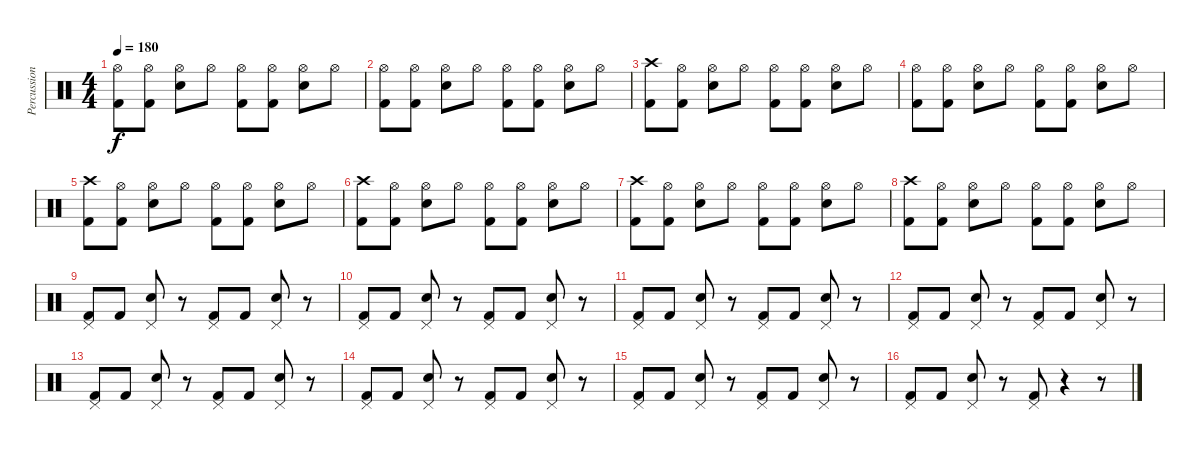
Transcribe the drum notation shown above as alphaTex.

\track ("Percussion" "Percussion") {instrument percussion}
\staff {score}
\articulation defaults
\ts (4 4)
\tempo 180
\clef neutral
\ks c
("Hi-Hat (open)" "Kick (hit) 2").8{dy f} ("Hi-Hat (open)" "Kick (hit) 2").8 ("Hi-Hat (open)" "Electric Snare (hit)").8 "Hi-Hat (open)".8 ("Hi-Hat (open)" "Kick (hit) 2").8 ("Hi-Hat (open)" "Kick (hit) 2").8 ("Hi-Hat (open)" "Electric Snare (hit)").8 "Hi-Hat (open)".8 |
("Hi-Hat (open)" "Kick (hit) 2").8 ("Hi-Hat (open)" "Kick (hit) 2").8 ("Hi-Hat (open)" "Electric Snare (hit)").8 "Hi-Hat (open)".8 ("Hi-Hat (open)" "Kick (hit) 2").8 ("Hi-Hat (open)" "Kick (hit) 2").8 ("Hi-Hat (open)" "Electric Snare (hit)").8 "Hi-Hat (open)".8 |
("Crash high (hit)" "Kick (hit) 2").8 ("Hi-Hat (open)" "Kick (hit) 2").8 ("Hi-Hat (open)" "Electric Snare (hit)").8 "Hi-Hat (open)".8 ("Hi-Hat (open)" "Kick (hit) 2").8 ("Hi-Hat (open)" "Kick (hit) 2").8 ("Hi-Hat (open)" "Electric Snare (hit)").8 "Hi-Hat (open)".8 |
("Hi-Hat (open)" "Kick (hit) 2").8 ("Hi-Hat (open)" "Kick (hit) 2").8 ("Hi-Hat (open)" "Electric Snare (hit)").8 "Hi-Hat (open)".8 ("Hi-Hat (open)" "Kick (hit) 2").8 ("Hi-Hat (open)" "Kick (hit) 2").8 ("Hi-Hat (open)" "Electric Snare (hit)").8 "Hi-Hat (open)".8 |
("Crash high (hit)" "Kick (hit) 2").8 ("Hi-Hat (open)" "Kick (hit) 2").8 ("Hi-Hat (open)" "Electric Snare (hit)").8 "Hi-Hat (open)".8 ("Hi-Hat (open)" "Kick (hit) 2").8 ("Hi-Hat (open)" "Kick (hit) 2").8 ("Hi-Hat (open)" "Electric Snare (hit)").8 "Hi-Hat (open)".8 |
("Crash high (hit)" "Kick (hit) 2").8 ("Hi-Hat (open)" "Kick (hit) 2").8 ("Hi-Hat (open)" "Electric Snare (hit)").8 "Hi-Hat (open)".8 ("Hi-Hat (open)" "Kick (hit) 2").8 ("Hi-Hat (open)" "Kick (hit) 2").8 ("Hi-Hat (open)" "Electric Snare (hit)").8 "Hi-Hat (open)".8 |
("Crash high (hit)" "Kick (hit) 2").8 ("Hi-Hat (open)" "Kick (hit) 2").8 ("Hi-Hat (open)" "Electric Snare (hit)").8 "Hi-Hat (open)".8 ("Hi-Hat (open)" "Kick (hit) 2").8 ("Hi-Hat (open)" "Kick (hit) 2").8 ("Hi-Hat (open)" "Electric Snare (hit)").8 "Hi-Hat (open)".8 |
("Crash high (hit)" "Kick (hit) 2").8 ("Hi-Hat (open)" "Kick (hit) 2").8 ("Hi-Hat (open)" "Electric Snare (hit)").8 "Hi-Hat (open)".8 ("Hi-Hat (open)" "Kick (hit) 2").8 ("Hi-Hat (open)" "Kick (hit) 2").8 ("Hi-Hat (open)" "Electric Snare (hit)").8 "Hi-Hat (open)".8 |
("Pedal Hi-Hat (hit)" "Kick (hit) 2").8 "Kick (hit) 2".8 ("Pedal Hi-Hat (hit)" "Electric Snare (hit)").8 r.8 ("Pedal Hi-Hat (hit)" "Kick (hit) 2").8 "Kick (hit) 2".8 ("Pedal Hi-Hat (hit)" "Electric Snare (hit)").8 r.8 |
("Pedal Hi-Hat (hit)" "Kick (hit) 2").8 "Kick (hit) 2".8 ("Pedal Hi-Hat (hit)" "Electric Snare (hit)").8 r.8 ("Pedal Hi-Hat (hit)" "Kick (hit) 2").8 "Kick (hit) 2".8 ("Pedal Hi-Hat (hit)" "Electric Snare (hit)").8 r.8 |
("Pedal Hi-Hat (hit)" "Kick (hit) 2").8 "Kick (hit) 2".8 ("Pedal Hi-Hat (hit)" "Electric Snare (hit)").8 r.8 ("Pedal Hi-Hat (hit)" "Kick (hit) 2").8 "Kick (hit) 2".8 ("Pedal Hi-Hat (hit)" "Electric Snare (hit)").8 r.8 |
("Pedal Hi-Hat (hit)" "Kick (hit) 2").8 "Kick (hit) 2".8 ("Pedal Hi-Hat (hit)" "Electric Snare (hit)").8 r.8 ("Pedal Hi-Hat (hit)" "Kick (hit) 2").8 "Kick (hit) 2".8 ("Pedal Hi-Hat (hit)" "Electric Snare (hit)").8 r.8 |
("Pedal Hi-Hat (hit)" "Kick (hit) 2").8 "Kick (hit) 2".8 ("Pedal Hi-Hat (hit)" "Electric Snare (hit)").8 r.8 ("Pedal Hi-Hat (hit)" "Kick (hit) 2").8 "Kick (hit) 2".8 ("Pedal Hi-Hat (hit)" "Electric Snare (hit)").8 r.8 |
("Pedal Hi-Hat (hit)" "Kick (hit) 2").8 "Kick (hit) 2".8 ("Pedal Hi-Hat (hit)" "Electric Snare (hit)").8 r.8 ("Pedal Hi-Hat (hit)" "Kick (hit) 2").8 "Kick (hit) 2".8 ("Pedal Hi-Hat (hit)" "Electric Snare (hit)").8 r.8 |
("Pedal Hi-Hat (hit)" "Kick (hit) 2").8 "Kick (hit) 2".8 ("Pedal Hi-Hat (hit)" "Electric Snare (hit)").8 r.8 ("Pedal Hi-Hat (hit)" "Kick (hit) 2").8 "Kick (hit) 2".8 ("Pedal Hi-Hat (hit)" "Electric Snare (hit)").8 r.8 |
("Pedal Hi-Hat (hit)" "Kick (hit) 2").8 "Kick (hit) 2".8 ("Pedal Hi-Hat (hit)" "Electric Snare (hit)").8 r.8 ("Pedal Hi-Hat (hit)" "Kick (hit) 2").8 r.4 r.8
